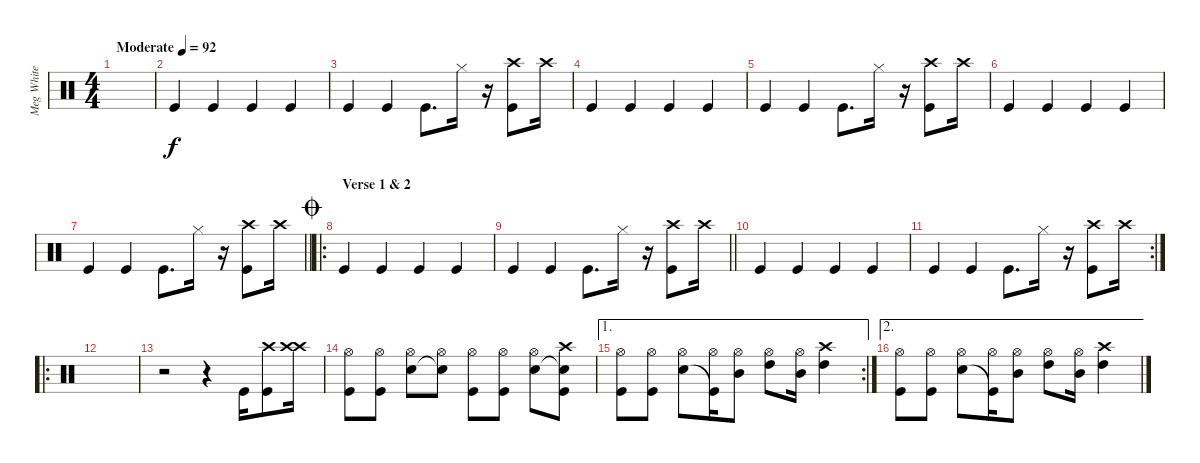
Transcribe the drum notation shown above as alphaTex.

\track ("Meg White" "Meg White") {instrument percussion}
\staff {score}
\articulation defaults
\ts (4 4)
\tempo (92 "Moderate")
\clef neutral
\ks c
|
"Kick (hit)".4 "Kick (hit)".4 "Kick (hit)".4 "Kick (hit)".4 |
"Kick (hit)".4 "Kick (hit)".4 "Kick (hit)".8{d} "Hi-Hat (closed)".16 r.16 ("Kick (hit)" "Crash high (hit)").8 "Crash high (hit)".16 |
"Kick (hit)".4 "Kick (hit)".4 "Kick (hit)".4 "Kick (hit)".4 |
"Kick (hit)".4 "Kick (hit)".4 "Kick (hit)".8{d} "Hi-Hat (closed)".16 r.16 ("Kick (hit)" "Crash high (hit)").8 "Crash high (hit)".16 |
"Kick (hit)".4 "Kick (hit)".4 "Kick (hit)".4 "Kick (hit)".4 |
\barLineRight lightlight "Kick (hit)".4 "Kick (hit)".4 "Kick (hit)".8{d} "Hi-Hat (closed)".16
r.16 ("Kick (hit)" "Crash high (hit)").8 "Crash high (hit)".16 |
\ro
\section ("" " Verse 1 & 2")
\jump coda "Kick (hit)".4 "Kick (hit)".4 "Kick (hit)".4 "Kick (hit)".4
|
\barLineRight lightlight "Kick (hit)".4 "Kick (hit)".4 "Kick (hit)".8{d} "Hi-Hat (closed)".16
r.16 ("Kick (hit)" "Crash high (hit)").8 "Crash high (hit)".16 |
"Kick (hit)".4 "Kick (hit)".4 "Kick (hit)".4 "Kick (hit)".4 |
\rc 2 "Kick (hit)".4 "Kick (hit)".4 "Kick (hit)".8{d} "Hi-Hat (closed)".16
r.16 ("Kick (hit)" "Crash high (hit)").8 "Crash high (hit)".16 |
\ro
|
r.2 r.4 "Kick (hit)".16 ("Kick (hit)" "Crash high (hit)").8 ("Crash high (hit)" "Crash high (hit)").16 |
("Kick (hit)" "Hi-Hat (open)").8 ("Kick (hit)" "Hi-Hat (open)").8 ("Snare (hit) 2" "Hi-Hat (open)").8 ("Snare (hit)"{t} "Hi-Hat (open)").8 ("Kick (hit)" "Hi-Hat (open)").8 ("Kick (hit)" "Hi-Hat (open)").8 ("Snare (hit) 2" "Hi-Hat (open)").8 ("Snare (hit)"{t} "Crash high (hit)" "Kick (hit)").8 |
\ae 1
\rc 2
("Kick (hit)" "Hi-Hat (open)").8 ("Kick (hit)" "Hi-Hat (open)").8 ("Snare (hit) 2" "Hi-Hat (open)").8 ("Kick (hit)"{t} "Hi-Hat (open)").16 ("Mid Tom (hit)" "Hi-Hat (open)").8 ("High Tom (hit)" "Hi-Hat (open)").8 ("Mid Tom (hit)" "Hi-Hat (open)").16 ("High Tom (hit)" "Crash high (hit)").4 |
\ae 2
("Kick (hit)" "Hi-Hat (open)").8 ("Kick (hit)" "Hi-Hat (open)").8 ("Snare (hit) 2" "Hi-Hat (open)").8 ("Kick (hit)"{t} "Hi-Hat (open)").16 ("Mid Tom (hit)" "Hi-Hat (open)").8 ("High Tom (hit)" "Hi-Hat (open)").8 ("Mid Tom (hit)" "Hi-Hat (open)").16 ("High Tom (hit)" "Crash high (hit)").4
